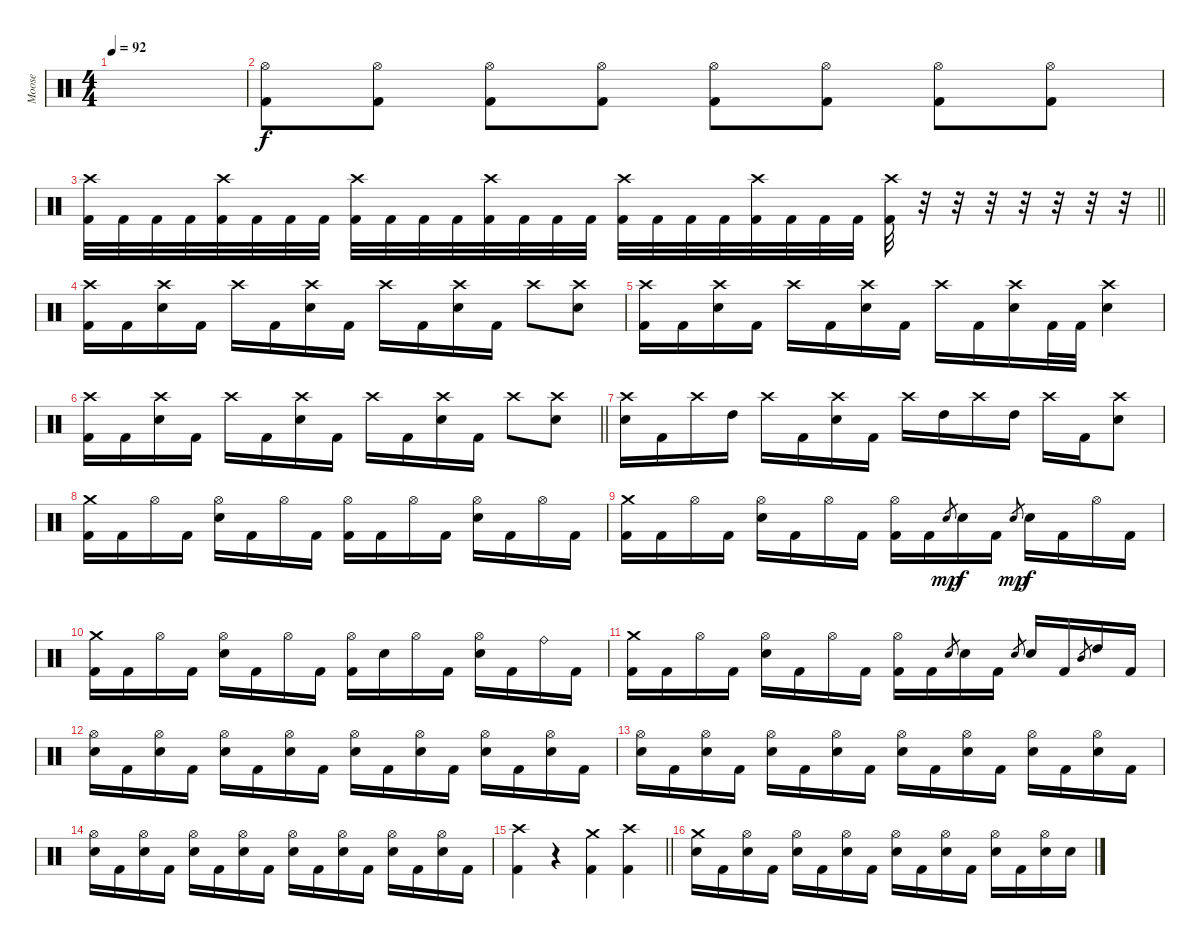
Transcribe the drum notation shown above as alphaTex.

\track ("Moose" "Moose") {instrument percussion}
\staff {score}
\articulation defaults
\ts (4 4)
\tempo 92
\clef neutral
\ks c
|
("Hi-Hat (open)" "Kick (hit) 2").8 ("Hi-Hat (open)" "Kick (hit) 2").8 ("Hi-Hat (open)" "Kick (hit) 2").8 ("Hi-Hat (open)" "Kick (hit) 2").8 ("Hi-Hat (open)" "Kick (hit) 2").8 ("Hi-Hat (open)" "Kick (hit) 2").8 ("Hi-Hat (open)" "Kick (hit) 2").8 ("Hi-Hat (open)" "Kick (hit) 2").8 |
\barLineRight lightlight
("Crash high (hit)" "Kick (hit) 2").32 "Kick (hit) 2".32 "Kick (hit) 2".32 "Kick (hit) 2".32 ("Crash high (hit)" "Kick (hit) 2").32 "Kick (hit) 2".32 "Kick (hit) 2".32 "Kick (hit) 2".32 ("Crash high (hit)" "Kick (hit) 2").32 "Kick (hit) 2".32 "Kick (hit) 2".32 "Kick (hit) 2".32 ("Crash high (hit)" "Kick (hit) 2").32 "Kick (hit) 2".32 "Kick (hit) 2".32 "Kick (hit) 2".32 ("Crash high (hit)" "Kick (hit) 2").32 "Kick (hit) 2".32 "Kick (hit) 2".32 "Kick (hit) 2".32 ("Crash high (hit)" "Kick (hit) 2").32 "Kick (hit) 2".32 "Kick (hit) 2".32 "Kick (hit) 2".32 ("Crash high (hit)" "Kick (hit) 2").32 r.32 r.32 r.32 r.32 r.32 r.32 r.32 |
("Crash high (hit)" "Kick (hit) 2").16 "Kick (hit) 2".16 ("Crash high (hit)" "Electric Snare (hit)").16 "Kick (hit) 2".16 "Crash high (hit)".16 "Kick (hit) 2".16 ("Crash high (hit)" "Electric Snare (hit)").16 "Kick (hit) 2".16 "Crash high (hit)".16 "Kick (hit) 2".16 ("Crash high (hit)" "Electric Snare (hit)").16 "Kick (hit) 2".16 "Crash high (hit)".8 ("Crash high (hit)" "Electric Snare (hit)").8 |
("Crash high (hit)" "Kick (hit) 2").16 "Kick (hit) 2".16 ("Crash high (hit)" "Electric Snare (hit)").16 "Kick (hit) 2".16 "Crash high (hit)".16 "Kick (hit) 2".16 ("Crash high (hit)" "Electric Snare (hit)").16 "Kick (hit) 2".16 "Crash high (hit)".16 "Kick (hit) 2".16 ("Crash high (hit)" "Electric Snare (hit)").16 "Kick (hit) 2".32 "Kick (hit) 2".32 ("Crash high (hit)" "Electric Snare (hit)").4 |
\barLineRight lightlight
("Crash high (hit)" "Kick (hit) 2").16 "Kick (hit) 2".16 ("Crash high (hit)" "Electric Snare (hit)").16 "Kick (hit) 2".16 "Crash high (hit)".16 "Kick (hit) 2".16 ("Crash high (hit)" "Electric Snare (hit)").16 "Kick (hit) 2".16 "Crash high (hit)".16 "Kick (hit) 2".16 ("Crash high (hit)" "Electric Snare (hit)").16 "Kick (hit) 2".16 "Crash high (hit)".8 ("Crash high (hit)" "Electric Snare (hit)").8 |
("Crash high (hit)" "Electric Snare (hit)").16 "Kick (hit) 2".16 "Crash high (hit)".16 "High Tom (hit)".16 "Crash high (hit)".16 "Kick (hit) 2".16 ("Crash high (hit)" "Electric Snare (hit)").16 "Kick (hit) 2".16 "Crash high (hit)".16 "High Tom (hit)".16 "Crash high (hit)".16 "High Tom (hit)".16 "Crash high (hit)".16 "Kick (hit) 2".16 ("Crash high (hit)" "Electric Snare (hit)").8 |
("Crash medium (hit)" "Kick (hit) 2").16 "Kick (hit) 2".16 "Hi-Hat (open)".16 "Kick (hit) 2".16 ("Hi-Hat (open)" "Electric Snare (hit)").16 "Kick (hit) 2".16 "Hi-Hat (open)".16 "Kick (hit) 2".16 ("Hi-Hat (open)" "Kick (hit) 2").16 "Kick (hit) 2".16 "Hi-Hat (open)".16 "Kick (hit) 2".16 ("Hi-Hat (open)" "Electric Snare (hit)").16 "Kick (hit) 2".16 "Hi-Hat (open)".16 "Kick (hit) 2".16 |
("Crash medium (hit)" "Kick (hit) 2").16 "Kick (hit) 2".16 "Hi-Hat (open)".16 "Kick (hit) 2".16 ("Hi-Hat (open)" "Electric Snare (hit)").16 "Kick (hit) 2".16 "Hi-Hat (open)".16 "Kick (hit) 2".16 ("Hi-Hat (open)" "Kick (hit) 2").16 "Kick (hit) 2".16 "Electric Snare (hit)".8{gr dy mp} "Electric Snare (hit)".16{dy f} "Kick (hit) 2".16 "Electric Snare (hit)".8{gr dy mp} "Electric Snare (hit)".16{dy f} "Kick (hit) 2".16 "Hi-Hat (open)".16 "Kick (hit) 2".16 |
("Crash medium (hit)" "Kick (hit) 2").16 "Kick (hit) 2".16 "Hi-Hat (open)".16 "Kick (hit) 2".16 ("Hi-Hat (open)" "Electric Snare (hit)").16 "Kick (hit) 2".16 "Hi-Hat (open)".16 "Kick (hit) 2".16 ("Hi-Hat (open)" "Kick (hit) 2").16 "Electric Snare (hit)".16 "Hi-Hat (open)".16 "Kick (hit) 2".16 ("Hi-Hat (open)" "Electric Snare (hit)").16 "Kick (hit) 2".16 "Ride (bell)".16 "Kick (hit) 2".16 |
("Crash medium (hit)" "Kick (hit) 2").16 "Kick (hit) 2".16 "Hi-Hat (open)".16 "Kick (hit) 2".16 ("Hi-Hat (open)" "Electric Snare (hit)").16 "Kick (hit) 2".16 "Hi-Hat (open)".16 "Kick (hit) 2".16 ("Hi-Hat (open)" "Kick (hit) 2").16 "Kick (hit) 2".16 "Electric Snare (hit)".8{gr} "Electric Snare (hit)".16 "Kick (hit) 2".16 "Electric Snare (hit)".8{gr} "Electric Snare (hit)".16 "Kick (hit) 2".16 "Mid Tom (hit)".8{gr} "High Tom (hit)".16 "Kick (hit) 2".16 |
("Hi-Hat (open)" "Electric Snare (hit)").16{volume 6} "Kick (hit) 2".16 ("Hi-Hat (open)" "Electric Snare (hit)").16 "Kick (hit) 2".16 ("Hi-Hat (open)" "Electric Snare (hit)").16 "Kick (hit) 2".16 ("Hi-Hat (open)" "Electric Snare (hit)").16 "Kick (hit) 2".16 ("Hi-Hat (open)" "Electric Snare (hit)").16 "Kick (hit) 2".16 ("Hi-Hat (open)" "Electric Snare (hit)").16 "Kick (hit) 2".16 ("Hi-Hat (open)" "Electric Snare (hit)").16 "Kick (hit) 2".16 ("Hi-Hat (open)" "Electric Snare (hit)").16 "Kick (hit) 2".16 |
("Hi-Hat (open)" "Electric Snare (hit)").16 "Kick (hit) 2".16 ("Hi-Hat (open)" "Electric Snare (hit)").16 "Kick (hit) 2".16 ("Hi-Hat (open)" "Electric Snare (hit)").16 "Kick (hit) 2".16 ("Hi-Hat (open)" "Electric Snare (hit)").16 "Kick (hit) 2".16 ("Hi-Hat (open)" "Electric Snare (hit)").16 "Kick (hit) 2".16 ("Hi-Hat (open)" "Electric Snare (hit)").16 "Kick (hit) 2".16 ("Hi-Hat (open)" "Electric Snare (hit)").16 "Kick (hit) 2".16 ("Hi-Hat (open)" "Electric Snare (hit)").16 "Kick (hit) 2".16 |
("Hi-Hat (open)" "Electric Snare (hit)").16 "Kick (hit) 2".16 ("Hi-Hat (open)" "Electric Snare (hit)").16 "Kick (hit) 2".16 ("Hi-Hat (open)" "Electric Snare (hit)").16 "Kick (hit) 2".16 ("Hi-Hat (open)" "Electric Snare (hit)").16 "Kick (hit) 2".16 ("Hi-Hat (open)" "Electric Snare (hit)").16 "Kick (hit) 2".16 ("Hi-Hat (open)" "Electric Snare (hit)").16 "Kick (hit) 2".16 ("Hi-Hat (open)" "Electric Snare (hit)").16 "Kick (hit) 2".16 ("Hi-Hat (open)" "Electric Snare (hit)").16 "Kick (hit) 2".16 |
\barLineRight lightlight
("Crash high (hit)" "Kick (hit) 2").4{volume 13} r.4 ("Crash medium (hit)" "Kick (hit) 2").4 ("Crash high (hit)" "Kick (hit) 2").4{volume 13} |
("Crash medium (hit)" "Electric Snare (hit)").16 "Kick (hit) 2".16 ("Hi-Hat (open)" "Electric Snare (hit)").16 "Kick (hit) 2".16 ("Hi-Hat (open)" "Electric Snare (hit)").16 "Kick (hit) 2".16 ("Hi-Hat (open)" "Electric Snare (hit)").16 "Kick (hit) 2".16 ("Hi-Hat (open)" "Electric Snare (hit)").16 "Kick (hit) 2".16 ("Hi-Hat (open)" "Electric Snare (hit)").16 "Kick (hit) 2".16 ("Hi-Hat (open)" "Electric Snare (hit)").16 "Kick (hit) 2".16 ("Hi-Hat (open)" "Electric Snare (hit)").16 "Electric Snare (hit)".16
